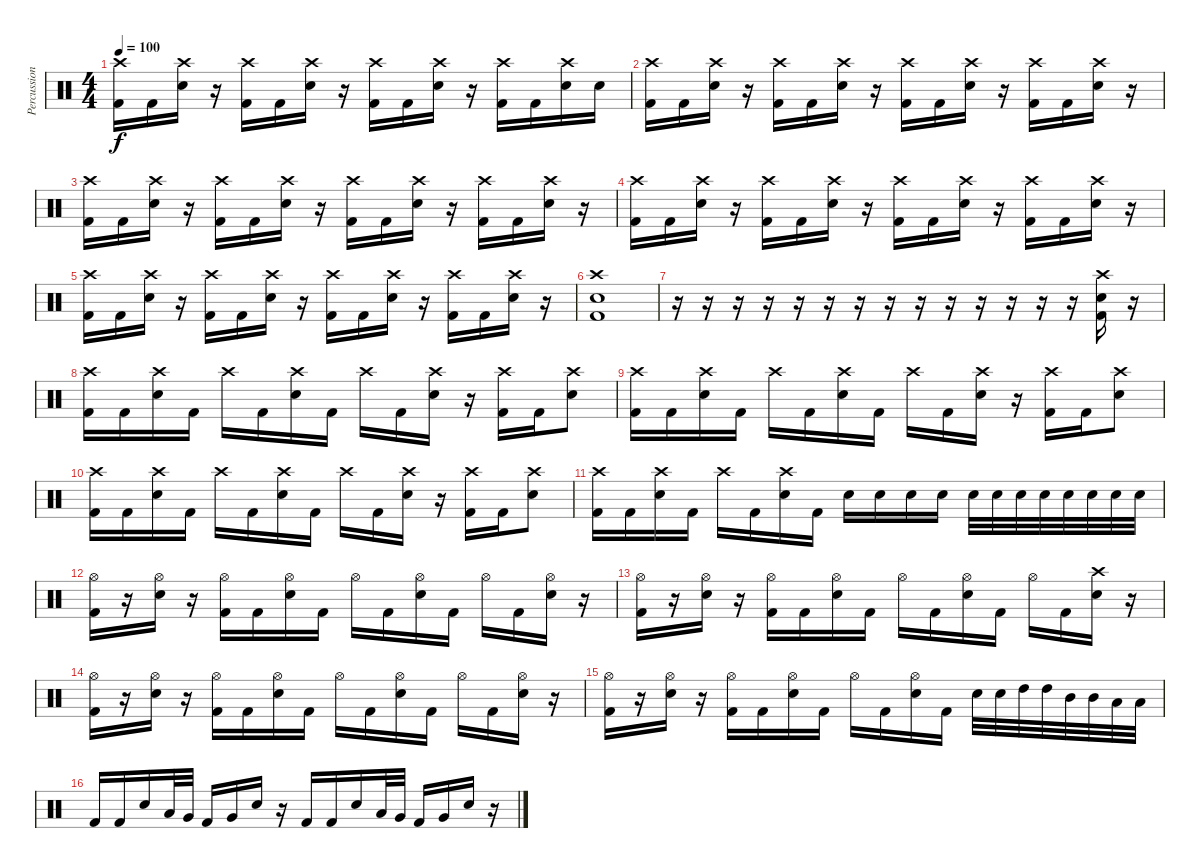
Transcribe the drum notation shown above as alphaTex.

\track ("Percussions" "Percussion") {instrument percussion}
\staff {score}
\articulation defaults
\ts (4 4)
\tempo 100
\clef neutral
\ks c
("Crash high (hit)" "Kick (hit) 2").16{dy f} "Kick (hit) 2".16 ("Crash high (hit)" "Electric Snare (hit)").16 r.16 ("Crash high (hit)" "Kick (hit) 2").16 "Kick (hit) 2".16 ("Crash high (hit)" "Electric Snare (hit)").16 r.16 ("Crash high (hit)" "Kick (hit) 2").16 "Kick (hit) 2".16 ("Crash high (hit)" "Electric Snare (hit)").16 r.16 ("Crash high (hit)" "Kick (hit) 2").16 "Kick (hit) 2".16 ("Crash high (hit)" "Electric Snare (hit)").16 "Electric Snare (hit)".16 |
("Crash high (hit)" "Kick (hit) 2").16 "Kick (hit) 2".16 ("Crash high (hit)" "Electric Snare (hit)").16 r.16 ("Crash high (hit)" "Kick (hit) 2").16 "Kick (hit) 2".16 ("Crash high (hit)" "Electric Snare (hit)").16 r.16 ("Crash high (hit)" "Kick (hit) 2").16 "Kick (hit) 2".16 ("Crash high (hit)" "Electric Snare (hit)").16 r.16 ("Crash high (hit)" "Kick (hit) 2").16 "Kick (hit) 2".16 ("Crash high (hit)" "Electric Snare (hit)").16 r.16 |
("Crash high (hit)" "Kick (hit) 2").16 "Kick (hit) 2".16 ("Crash high (hit)" "Electric Snare (hit)").16 r.16 ("Crash high (hit)" "Kick (hit) 2").16 "Kick (hit) 2".16 ("Crash high (hit)" "Electric Snare (hit)").16 r.16 ("Crash high (hit)" "Kick (hit) 2").16 "Kick (hit) 2".16 ("Crash high (hit)" "Electric Snare (hit)").16 r.16 ("Crash high (hit)" "Kick (hit) 2").16 "Kick (hit) 2".16 ("Crash high (hit)" "Electric Snare (hit)").16 r.16 |
("Crash high (hit)" "Kick (hit) 2").16 "Kick (hit) 2".16 ("Crash high (hit)" "Electric Snare (hit)").16 r.16 ("Crash high (hit)" "Kick (hit) 2").16 "Kick (hit) 2".16 ("Crash high (hit)" "Electric Snare (hit)").16 r.16 ("Crash high (hit)" "Kick (hit) 2").16 "Kick (hit) 2".16 ("Crash high (hit)" "Electric Snare (hit)").16 r.16 ("Crash high (hit)" "Kick (hit) 2").16 "Kick (hit) 2".16 ("Crash high (hit)" "Electric Snare (hit)").16 r.16 |
("Crash high (hit)" "Kick (hit) 2").16 "Kick (hit) 2".16 ("Crash high (hit)" "Electric Snare (hit)").16 r.16 ("Crash high (hit)" "Kick (hit) 2").16 "Kick (hit) 2".16 ("Crash high (hit)" "Electric Snare (hit)").16 r.16 ("Crash high (hit)" "Kick (hit) 2").16 "Kick (hit) 2".16 ("Crash high (hit)" "Electric Snare (hit)").16 r.16 ("Crash high (hit)" "Kick (hit) 2").16 "Kick (hit) 2".16 ("Crash high (hit)" "Electric Snare (hit)").16 r.16 |
("Crash high (hit)" "Electric Snare (hit)" "Kick (hit) 2").1 |
r.16 r.16 r.16 r.16 r.16 r.16 r.16 r.16 r.16 r.16 r.16 r.16 r.16 r.16 ("Crash high (hit)" "Electric Snare (hit)" "Kick (hit) 2").16 r.16 |
("Crash high (hit)" "Kick (hit) 2").16 "Kick (hit) 2".16 ("Crash high (hit)" "Electric Snare (hit)").16 "Kick (hit) 2".16 "Crash high (hit)".16 "Kick (hit) 2".16 ("Crash high (hit)" "Electric Snare (hit)").16 "Kick (hit) 2".16 "Crash high (hit)".16 "Kick (hit) 2".16 ("Crash high (hit)" "Electric Snare (hit)").16 r.16 ("Crash high (hit)" "Kick (hit) 2").16 "Kick (hit) 2".16 ("Crash high (hit)" "Electric Snare (hit)").8 |
("Crash high (hit)" "Kick (hit) 2").16 "Kick (hit) 2".16 ("Crash high (hit)" "Electric Snare (hit)").16 "Kick (hit) 2".16 "Crash high (hit)".16 "Kick (hit) 2".16 ("Crash high (hit)" "Electric Snare (hit)").16 "Kick (hit) 2".16 "Crash high (hit)".16 "Kick (hit) 2".16 ("Crash high (hit)" "Electric Snare (hit)").16 r.16 ("Crash high (hit)" "Kick (hit) 2").16 "Kick (hit) 2".16 ("Crash high (hit)" "Electric Snare (hit)").8 |
("Crash high (hit)" "Kick (hit) 2").16 "Kick (hit) 2".16 ("Crash high (hit)" "Electric Snare (hit)").16 "Kick (hit) 2".16 "Crash high (hit)".16 "Kick (hit) 2".16 ("Crash high (hit)" "Electric Snare (hit)").16 "Kick (hit) 2".16 "Crash high (hit)".16 "Kick (hit) 2".16 ("Crash high (hit)" "Electric Snare (hit)").16 r.16 ("Crash high (hit)" "Kick (hit) 2").16 "Kick (hit) 2".16 ("Crash high (hit)" "Electric Snare (hit)").8 |
("Crash high (hit)" "Kick (hit) 2").16 "Kick (hit) 2".16 ("Crash high (hit)" "Electric Snare (hit)").16 "Kick (hit) 2".16 "Crash high (hit)".16 "Kick (hit) 2".16 ("Crash high (hit)" "Electric Snare (hit)").16 "Kick (hit) 2".16 "Electric Snare (hit)".16 "Electric Snare (hit)".16 "Electric Snare (hit)".16 "Electric Snare (hit)".16 "Electric Snare (hit)".32 "Electric Snare (hit)".32 "Electric Snare (hit)".32 "Electric Snare (hit)".32 "Electric Snare (hit)".32 "Electric Snare (hit)".32 "Electric Snare (hit)".32 "Electric Snare (hit)".32 |
("Hi-Hat (open)" "Kick (hit) 2").16 r.16 ("Hi-Hat (open)" "Electric Snare (hit)").16 r.16 ("Hi-Hat (open)" "Kick (hit) 2").16 "Kick (hit) 2".16 ("Hi-Hat (open)" "Electric Snare (hit)").16 "Kick (hit) 2".16 "Hi-Hat (open)".16 "Kick (hit) 2".16 ("Hi-Hat (open)" "Electric Snare (hit)").16 "Kick (hit) 2".16 "Hi-Hat (open)".16 "Kick (hit) 2".16 ("Hi-Hat (open)" "Electric Snare (hit)").16 r.16 |
("Hi-Hat (open)" "Kick (hit) 2").16 r.16 ("Hi-Hat (open)" "Electric Snare (hit)").16 r.16 ("Hi-Hat (open)" "Kick (hit) 2").16 "Kick (hit) 2".16 ("Hi-Hat (open)" "Electric Snare (hit)").16 "Kick (hit) 2".16 "Hi-Hat (open)".16 "Kick (hit) 2".16 ("Hi-Hat (open)" "Electric Snare (hit)").16 "Kick (hit) 2".16 "Hi-Hat (open)".16 "Kick (hit) 2".16 ("Crash high (hit)" "Electric Snare (hit)").16 r.16 |
("Hi-Hat (open)" "Kick (hit) 2").16 r.16 ("Hi-Hat (open)" "Electric Snare (hit)").16 r.16 ("Hi-Hat (open)" "Kick (hit) 2").16 "Kick (hit) 2".16 ("Hi-Hat (open)" "Electric Snare (hit)").16 "Kick (hit) 2".16 "Hi-Hat (open)".16 "Kick (hit) 2".16 ("Hi-Hat (open)" "Electric Snare (hit)").16 "Kick (hit) 2".16 "Hi-Hat (open)".16 "Kick (hit) 2".16 ("Hi-Hat (open)" "Electric Snare (hit)").16 r.16 |
("Hi-Hat (open)" "Kick (hit) 2").16 r.16 ("Hi-Hat (open)" "Electric Snare (hit)").16 r.16 ("Hi-Hat (open)" "Kick (hit) 2").16 "Kick (hit) 2".16 ("Hi-Hat (open)" "Electric Snare (hit)").16 "Kick (hit) 2".16 "Hi-Hat (open)".16 "Kick (hit) 2".16 ("Hi-Hat (open)" "Electric Snare (hit)").16 "Kick (hit) 2".16 "Electric Snare (hit)".32 "Electric Snare (hit)".32 "High Tom (hit)".32 "High Tom (hit)".32 "Mid Tom (hit)".32 "Mid Tom (hit)".32 "Low Tom (hit)".32 "Low Tom (hit)".32 |
"Kick (hit) 2".16 "Kick (hit) 2".16 "Electric Snare (hit)".16 "Low Tom (hit)".32 "Very Low Tom (hit)".32 "Kick (hit) 2".16 "Very Low Tom (hit)".16 "Electric Snare (hit)".16 r.16 "Kick (hit) 2".16 "Kick (hit) 2".16 "Electric Snare (hit)".16 "Low Tom (hit)".32 "Very Low Tom (hit)".32 "Kick (hit) 2".16 "Very Low Tom (hit)".16 "Electric Snare (hit)".16 r.16
